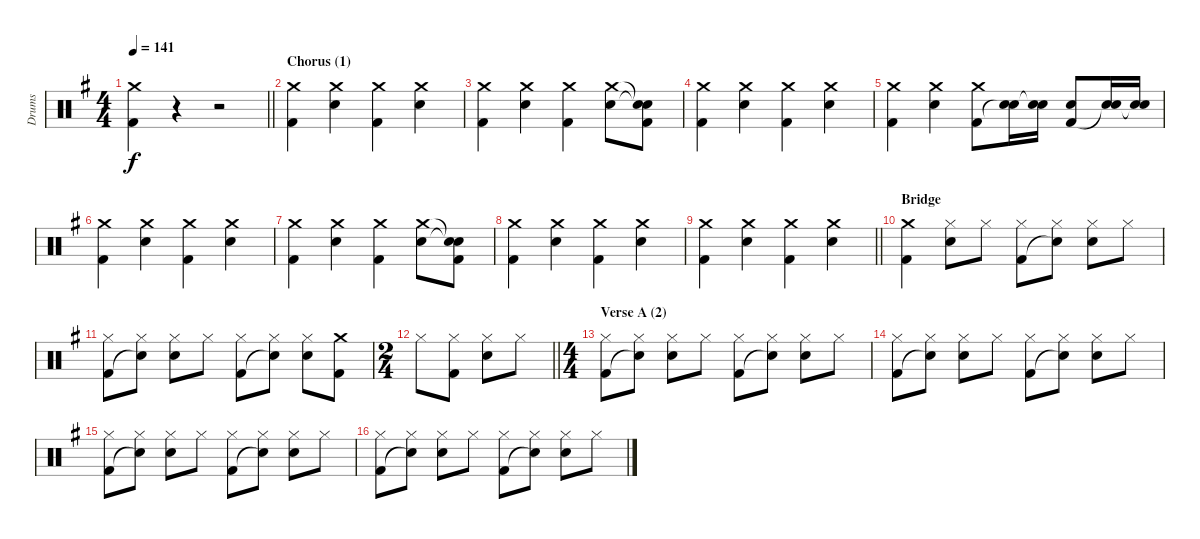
\track ("Drums" "Drums") {instrument percussion}
\staff {score}
\articulation defaults
\ts (4 4)
\tempo 141
\clef neutral
\barLineRight lightlight
\ks g
("Crash medium (hit)" "Kick (hit) 2").4{dy f} r.4 r.2 |
\section ("" "Chorus (1)")
("Crash medium (hit)" "Kick (hit) 2").4 ("Crash medium (hit)" "Electric Snare (hit)").4 ("Crash medium (hit)" "Kick (hit) 2").4 ("Crash medium (hit)" "Electric Snare (hit)").4 |
("Crash medium (hit)" "Kick (hit) 2").4 ("Crash medium (hit)" "Electric Snare (hit)").4 ("Crash medium (hit)" "Kick (hit) 2").4 ("Crash medium (hit)" "Electric Snare (hit)").8 ("Snare (hit)"{t} "Snare (hit)"{t} "Kick (hit) 2").8 |
("Crash medium (hit)" "Kick (hit) 2").4 ("Crash medium (hit)" "Electric Snare (hit)").4 ("Crash medium (hit)" "Kick (hit) 2").4 ("Crash medium (hit)" "Electric Snare (hit)").4 |
("Crash medium (hit)" "Kick (hit) 2").4 ("Crash medium (hit)" "Electric Snare (hit)").4 ("Crash medium (hit)" "Kick (hit) 2").8 ("Electric Snare (hit)" "Snare (hit)"{t}).16 ("Electric Snare (hit)" "Snare (hit)"{t}).16 ("Electric Snare (hit)" "Kick (hit) 2").8 ("Electric Snare (hit)" "Snare (hit)"{t}).16 ("Electric Snare (hit)" "Snare (hit)"{t}).16 |
("Crash medium (hit)" "Kick (hit) 2").4 ("Crash medium (hit)" "Electric Snare (hit)").4 ("Crash medium (hit)" "Kick (hit) 2").4 ("Crash medium (hit)" "Electric Snare (hit)").4 |
("Crash medium (hit)" "Kick (hit) 2").4 ("Crash medium (hit)" "Electric Snare (hit)").4 ("Crash medium (hit)" "Kick (hit) 2").4 ("Crash medium (hit)" "Electric Snare (hit)").8 ("Snare (hit)"{t} "Snare (hit)"{t} "Kick (hit) 2").8 |
("Crash medium (hit)" "Kick (hit) 2").4 ("Crash medium (hit)" "Electric Snare (hit)").4 ("Crash medium (hit)" "Kick (hit) 2").4 ("Crash medium (hit)" "Electric Snare (hit)").4 |
\barLineRight lightlight
("Crash medium (hit)" "Kick (hit) 2").4 ("Crash medium (hit)" "Electric Snare (hit)").4 ("Crash medium (hit)" "Kick (hit) 2").4 ("Crash medium (hit)" "Electric Snare (hit)").4 |
\section ("" "Bridge")
("Crash medium (hit)" "Kick (hit) 2").4 ("Hi-Hat (closed)" "Electric Snare (hit)").8 "Hi-Hat (closed)".8 ("Hi-Hat (closed)" "Kick (hit) 2").8 ("Hi-Hat (closed)" "Snare (hit)"{t}).8 ("Hi-Hat (closed)" "Electric Snare (hit)").8 "Hi-Hat (closed)".8 |
("Hi-Hat (closed)" "Kick (hit) 2").8 ("Hi-Hat (closed)" "Snare (hit)"{t}).8 ("Hi-Hat (closed)" "Electric Snare (hit)").8 "Hi-Hat (closed)".8 ("Hi-Hat (closed)" "Kick (hit) 2").8 ("Hi-Hat (closed)" "Snare (hit)"{t}).8 ("Hi-Hat (closed)" "Electric Snare (hit)").8 ("Crash medium (hit)" "Kick (hit) 2").8 |
\ts (2 4)
\barLineRight lightlight "Hi-Hat (closed)".8
("Hi-Hat (closed)" "Kick (hit) 2").8 ("Hi-Hat (closed)" "Electric Snare (hit)").8 "Hi-Hat (closed)".8 |
\ts (4 4)
\section ("" "Verse A (2)")
("Hi-Hat (closed)" "Kick (hit) 2").8 ("Hi-Hat (closed)" "Snare (hit)"{t}).8 ("Hi-Hat (closed)" "Electric Snare (hit)").8 "Hi-Hat (closed)".8 ("Hi-Hat (closed)" "Kick (hit) 2").8 ("Hi-Hat (closed)" "Snare (hit)"{t}).8 ("Hi-Hat (closed)" "Electric Snare (hit)").8 "Hi-Hat (closed)".8 |
("Hi-Hat (closed)" "Kick (hit) 2").8 ("Hi-Hat (closed)" "Snare (hit)"{t}).8 ("Hi-Hat (closed)" "Electric Snare (hit)").8 "Hi-Hat (closed)".8 ("Hi-Hat (closed)" "Kick (hit) 2").8 ("Hi-Hat (closed)" "Snare (hit)"{t}).8 ("Hi-Hat (closed)" "Electric Snare (hit)").8 "Hi-Hat (closed)".8 |
("Hi-Hat (closed)" "Kick (hit) 2").8 ("Hi-Hat (closed)" "Snare (hit)"{t}).8 ("Hi-Hat (closed)" "Electric Snare (hit)").8 "Hi-Hat (closed)".8 ("Hi-Hat (closed)" "Kick (hit) 2").8 ("Hi-Hat (closed)" "Snare (hit)"{t}).8 ("Hi-Hat (closed)" "Electric Snare (hit)").8 "Hi-Hat (closed)".8 |
("Hi-Hat (closed)" "Kick (hit) 2").8 ("Hi-Hat (closed)" "Snare (hit)"{t}).8 ("Hi-Hat (closed)" "Electric Snare (hit)").8 "Hi-Hat (closed)".8 ("Hi-Hat (closed)" "Kick (hit) 2").8 ("Hi-Hat (closed)" "Snare (hit)"{t}).8 ("Hi-Hat (closed)" "Electric Snare (hit)").8 "Hi-Hat (closed)".8
